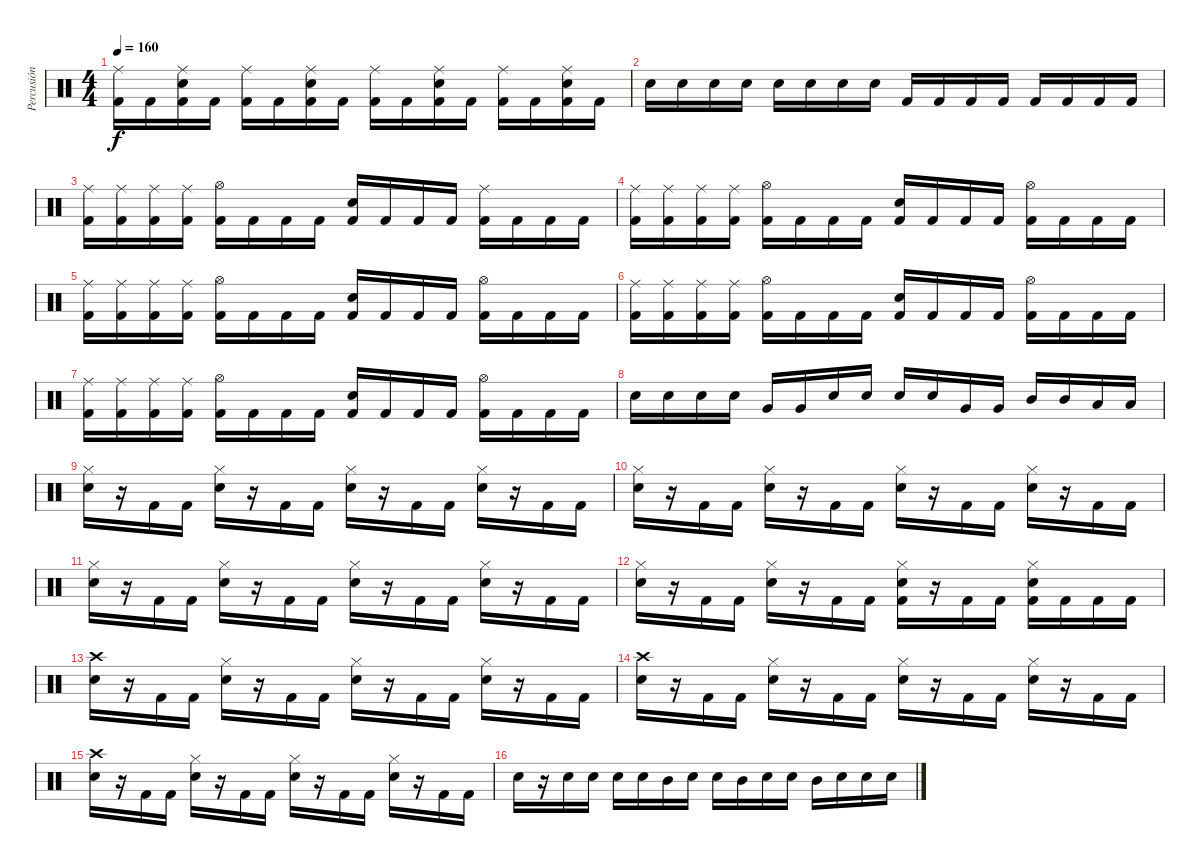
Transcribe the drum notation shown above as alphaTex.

\track ("Percusión" "Percusión") {instrument percussion}
\staff {score}
\articulation defaults
\ts (4 4)
\tempo 160
\clef neutral
\ks c
("Ride (middle)" "Kick (hit) 2").16{dy f} "Kick (hit) 2".16 ("Ride (middle)" "Snare (hit) 2" "Kick (hit) 2").16 "Kick (hit) 2".16 ("Ride (middle)" "Kick (hit) 2").16 "Kick (hit) 2".16 ("Ride (middle)" "Snare (hit) 2" "Kick (hit) 2").16 "Kick (hit) 2".16 ("Ride (middle)" "Kick (hit) 2").16 "Kick (hit) 2".16 ("Ride (middle)" "Snare (hit) 2" "Kick (hit) 2").16 "Kick (hit) 2".16 ("Ride (middle)" "Kick (hit) 2").16 "Kick (hit) 2".16 ("Ride (middle)" "Snare (hit) 2" "Kick (hit) 2").16 "Kick (hit) 2".16 |
"Snare (hit) 2".16 "Snare (hit) 2".16 "Snare (hit) 2".16 "Snare (hit) 2".16 "Snare (hit) 2".16 "Snare (hit) 2".16 "Snare (hit) 2".16 "Snare (hit) 2".16 "Kick (hit) 2".16 "Kick (hit) 2".16 "Kick (hit) 2".16 "Kick (hit) 2".16 "Kick (hit) 2".16 "Kick (hit) 2".16 "Kick (hit) 2".16 "Kick (hit) 2".16 |
("Ride (middle)" "Kick (hit) 2").16 ("Ride (middle)" "Kick (hit) 2").16 ("Ride (middle)" "Kick (hit) 2").16 ("Ride (middle)" "Kick (hit) 2").16 ("Hi-Hat (open)" "Kick (hit) 2").16 "Kick (hit) 2".16 "Kick (hit) 2".16 "Kick (hit) 2".16 ("Snare (hit) 2" "Kick (hit) 2").16 "Kick (hit) 2".16 "Kick (hit) 2".16 "Kick (hit) 2".16 ("Ride (middle)" "Kick (hit) 2").16 "Kick (hit) 2".16 "Kick (hit) 2".16 "Kick (hit) 2".16 |
("Ride (middle)" "Kick (hit) 2").16 ("Ride (middle)" "Kick (hit) 2").16 ("Ride (middle)" "Kick (hit) 2").16 ("Ride (middle)" "Kick (hit) 2").16 ("Hi-Hat (open)" "Kick (hit) 2").16 "Kick (hit) 2".16 "Kick (hit) 2".16 "Kick (hit) 2".16 ("Snare (hit) 2" "Kick (hit) 2").16 "Kick (hit) 2".16 "Kick (hit) 2".16 "Kick (hit) 2".16 ("Hi-Hat (open)" "Kick (hit) 2").16 "Kick (hit) 2".16 "Kick (hit) 2".16 "Kick (hit) 2".16 |
("Ride (middle)" "Kick (hit) 2").16 ("Ride (middle)" "Kick (hit) 2").16 ("Ride (middle)" "Kick (hit) 2").16 ("Ride (middle)" "Kick (hit) 2").16 ("Hi-Hat (open)" "Kick (hit) 2").16 "Kick (hit) 2".16 "Kick (hit) 2".16 "Kick (hit) 2".16 ("Snare (hit) 2" "Kick (hit) 2").16 "Kick (hit) 2".16 "Kick (hit) 2".16 "Kick (hit) 2".16 ("Hi-Hat (open)" "Kick (hit) 2").16 "Kick (hit) 2".16 "Kick (hit) 2".16 "Kick (hit) 2".16 |
("Ride (middle)" "Kick (hit) 2").16 ("Ride (middle)" "Kick (hit) 2").16 ("Ride (middle)" "Kick (hit) 2").16 ("Ride (middle)" "Kick (hit) 2").16 ("Hi-Hat (open)" "Kick (hit) 2").16 "Kick (hit) 2".16 "Kick (hit) 2".16 "Kick (hit) 2".16 ("Snare (hit) 2" "Kick (hit) 2").16 "Kick (hit) 2".16 "Kick (hit) 2".16 "Kick (hit) 2".16 ("Hi-Hat (open)" "Kick (hit) 2").16 "Kick (hit) 2".16 "Kick (hit) 2".16 "Kick (hit) 2".16 |
("Ride (middle)" "Kick (hit) 2").16 ("Ride (middle)" "Kick (hit) 2").16 ("Ride (middle)" "Kick (hit) 2").16 ("Ride (middle)" "Kick (hit) 2").16 ("Hi-Hat (open)" "Kick (hit) 2").16 "Kick (hit) 2".16 "Kick (hit) 2".16 "Kick (hit) 2".16 ("Snare (hit) 2" "Kick (hit) 2").16 "Kick (hit) 2".16 "Kick (hit) 2".16 "Kick (hit) 2".16 ("Hi-Hat (open)" "Kick (hit) 2").16 "Kick (hit) 2".16 "Kick (hit) 2".16 "Kick (hit) 2".16 |
"Snare (hit) 2".16 "Snare (hit) 2".16 "Snare (hit) 2".16 "Snare (hit) 2".16 "Very Low Tom (hit)".16 "Very Low Tom (hit)".16 "Snare (hit) 2".16 "Snare (hit) 2".16 "Snare (hit) 2".16 "Snare (hit) 2".16 "Very Low Tom (hit)".16 "Very Low Tom (hit)".16 "Mid Tom (hit)".16 "Mid Tom (hit)".16 "Low Tom (hit)".16 "Low Tom (hit)".16 |
("Hi-Hat (closed)" "Snare (hit) 2").16 r.16 "Kick (hit) 2".16 "Kick (hit) 2".16 ("Hi-Hat (closed)" "Snare (hit) 2").16 r.16 "Kick (hit) 2".16 "Kick (hit) 2".16 ("Hi-Hat (closed)" "Snare (hit) 2").16 r.16 "Kick (hit) 2".16 "Kick (hit) 2".16 ("Hi-Hat (closed)" "Snare (hit) 2").16 r.16 "Kick (hit) 2".16 "Kick (hit) 2".16 |
("Hi-Hat (closed)" "Snare (hit) 2").16 r.16 "Kick (hit) 2".16 "Kick (hit) 2".16 ("Hi-Hat (closed)" "Snare (hit) 2").16 r.16 "Kick (hit) 2".16 "Kick (hit) 2".16 ("Hi-Hat (closed)" "Snare (hit) 2").16 r.16 "Kick (hit) 2".16 "Kick (hit) 2".16 ("Hi-Hat (closed)" "Snare (hit) 2").16 r.16 "Kick (hit) 2".16 "Kick (hit) 2".16 |
("Hi-Hat (closed)" "Snare (hit) 2").16 r.16 "Kick (hit) 2".16 "Kick (hit) 2".16 ("Hi-Hat (closed)" "Snare (hit) 2").16 r.16 "Kick (hit) 2".16 "Kick (hit) 2".16 ("Hi-Hat (closed)" "Snare (hit) 2").16 r.16 "Kick (hit) 2".16 "Kick (hit) 2".16 ("Hi-Hat (closed)" "Snare (hit) 2").16 r.16 "Kick (hit) 2".16 "Kick (hit) 2".16 |
("Hi-Hat (closed)" "Snare (hit) 2").16 r.16 "Kick (hit) 2".16 "Kick (hit) 2".16 ("Hi-Hat (closed)" "Snare (hit) 2").16 r.16 "Kick (hit) 2".16 "Kick (hit) 2".16 ("Hi-Hat (closed)" "Snare (hit) 2" "Kick (hit) 2").16 r.16 "Kick (hit) 2".16 "Kick (hit) 2".16 ("Hi-Hat (closed)" "Snare (hit) 2" "Kick (hit) 2").16 "Kick (hit) 2".16 "Kick (hit) 2".16 "Kick (hit) 2".16 |
("Crash high (hit)" "Snare (hit) 2").16 r.16 "Kick (hit) 2".16 "Kick (hit) 2".16 ("Hi-Hat (closed)" "Snare (hit) 2").16 r.16 "Kick (hit) 2".16 "Kick (hit) 2".16 ("Hi-Hat (closed)" "Snare (hit) 2").16 r.16 "Kick (hit) 2".16 "Kick (hit) 2".16 ("Hi-Hat (closed)" "Snare (hit) 2").16 r.16 "Kick (hit) 2".16 "Kick (hit) 2".16 |
("Crash high (hit)" "Snare (hit) 2").16 r.16 "Kick (hit) 2".16 "Kick (hit) 2".16 ("Hi-Hat (closed)" "Snare (hit) 2").16 r.16 "Kick (hit) 2".16 "Kick (hit) 2".16 ("Hi-Hat (closed)" "Snare (hit) 2").16 r.16 "Kick (hit) 2".16 "Kick (hit) 2".16 ("Hi-Hat (closed)" "Snare (hit) 2").16 r.16 "Kick (hit) 2".16 "Kick (hit) 2".16 |
("Crash high (hit)" "Snare (hit) 2").16 r.16 "Kick (hit) 2".16 "Kick (hit) 2".16 ("Hi-Hat (closed)" "Snare (hit) 2").16 r.16 "Kick (hit) 2".16 "Kick (hit) 2".16 ("Hi-Hat (closed)" "Snare (hit) 2").16 r.16 "Kick (hit) 2".16 "Kick (hit) 2".16 ("Hi-Hat (closed)" "Snare (hit) 2").16 r.16 "Kick (hit) 2".16 "Kick (hit) 2".16 |
"Snare (hit) 2".16 r.16 "Snare (hit) 2".16 "Snare (hit) 2".16 "Snare (hit) 2".16 "Snare (hit) 2".16 "Mid Tom (hit)".16 "Snare (hit) 2".16 "Snare (hit) 2".16 "Mid Tom (hit)".16 "Snare (hit) 2".16 "Snare (hit) 2".16 "Mid Tom (hit)".16 "Snare (hit) 2".16 "Snare (hit) 2".16 "Snare (hit) 2".16
